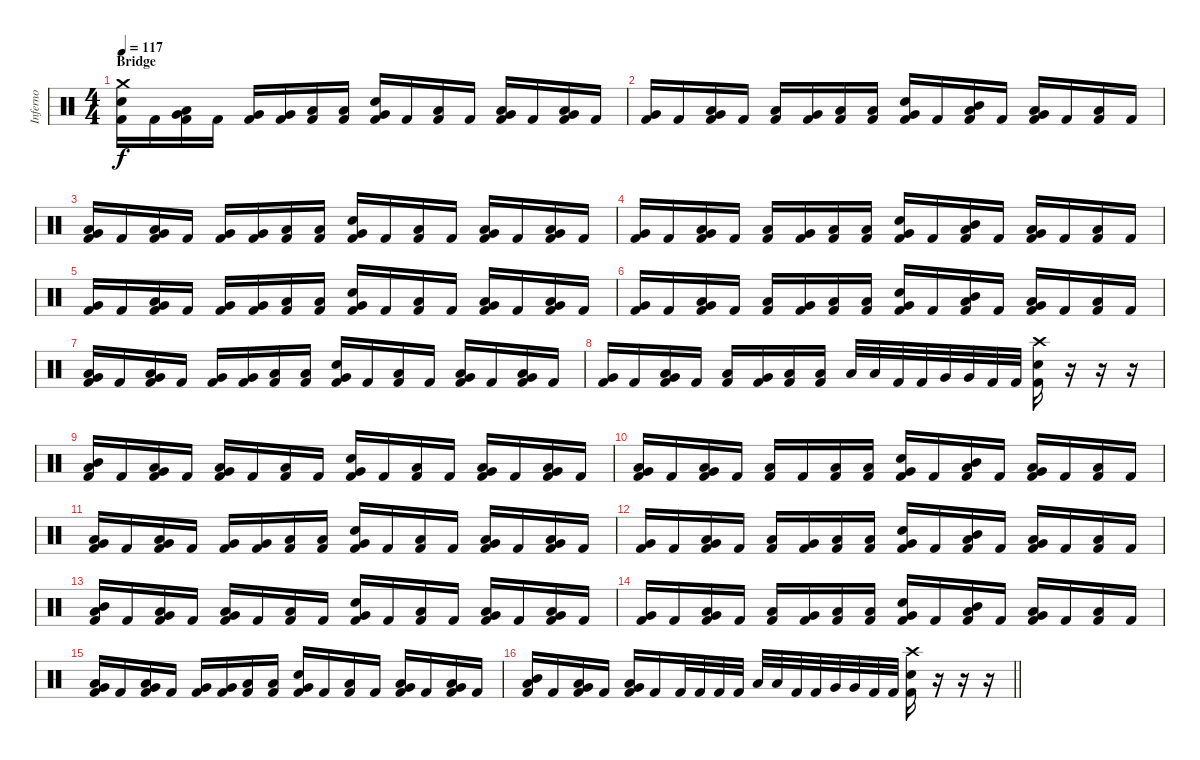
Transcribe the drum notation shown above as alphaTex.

\track ("Inferno" "Inferno") {instrument percussion}
\staff {score}
\articulation defaults
\ts (4 4)
\section ("" "Bridge ")
\tempo 117
\clef neutral
\ks c
("Crash medium (hit)" "Snare (hit) 2" "Kick (hit) 2").16{dy f} "Kick (hit) 2".16 ("Low Tom (hit)" "Very Low Tom (hit)" "Kick (hit) 2").16 "Kick (hit) 2".16 ("Very Low Tom (hit)" "Kick (hit) 2").16 ("Very Low Tom (hit)" "Kick (hit) 2").16 ("Low Floor Tom (hit)" "Kick (hit) 2").16 ("Low Floor Tom (hit)" "Kick (hit) 2").16 ("Very Low Tom (hit)" "Snare (hit) 2" "Kick (hit) 2").16 "Kick (hit) 2".16 ("Low Floor Tom (hit)" "Kick (hit) 2").16 "Kick (hit) 2".16 ("Low Tom (hit)" "Very Low Tom (hit)" "Kick (hit) 2").16 "Kick (hit) 2".16 ("Very Low Tom (hit)" "Low Floor Tom (hit)" "Kick (hit) 2").16 "Kick (hit) 2".16 |
("Very Low Tom (hit)" "Kick (hit) 2").16 "Kick (hit) 2".16 ("Very Low Tom (hit)" "Low Floor Tom (hit)" "Kick (hit) 2").16 "Kick (hit) 2".16 ("Low Tom (hit)" "Kick (hit) 2").16 ("Very Low Tom (hit)" "Kick (hit) 2").16 ("Low Floor Tom (hit)" "Kick (hit) 2").16 ("Low Floor Tom (hit)" "Kick (hit) 2").16 ("Very Low Tom (hit)" "Snare (hit) 2" "Kick (hit) 2").16 "Kick (hit) 2".16 ("Mid Tom (hit)" "Low Tom (hit)" "Kick (hit) 2").16 "Kick (hit) 2".16 ("Low Tom (hit)" "Very Low Tom (hit)" "Kick (hit) 2").16 "Kick (hit) 2".16 ("Low Floor Tom (hit)" "Kick (hit) 2").16 "Kick (hit) 2".16 |
("Very Low Tom (hit)" "Low Floor Tom (hit)" "Kick (hit) 2").16 "Kick (hit) 2".16 ("Low Tom (hit)" "Very Low Tom (hit)" "Kick (hit) 2").16 "Kick (hit) 2".16 ("Very Low Tom (hit)" "Kick (hit) 2").16 ("Very Low Tom (hit)" "Kick (hit) 2").16 ("Low Floor Tom (hit)" "Kick (hit) 2").16 ("Low Floor Tom (hit)" "Kick (hit) 2").16 ("Very Low Tom (hit)" "Snare (hit) 2" "Kick (hit) 2").16 "Kick (hit) 2".16 ("Low Floor Tom (hit)" "Kick (hit) 2").16 "Kick (hit) 2".16 ("Low Tom (hit)" "Very Low Tom (hit)" "Kick (hit) 2").16 "Kick (hit) 2".16 ("Very Low Tom (hit)" "Low Floor Tom (hit)" "Kick (hit) 2").16 "Kick (hit) 2".16 |
("Very Low Tom (hit)" "Kick (hit) 2").16 "Kick (hit) 2".16 ("Very Low Tom (hit)" "Low Floor Tom (hit)" "Kick (hit) 2").16 "Kick (hit) 2".16 ("Low Tom (hit)" "Kick (hit) 2").16 ("Very Low Tom (hit)" "Kick (hit) 2").16 ("Low Floor Tom (hit)" "Kick (hit) 2").16 ("Low Floor Tom (hit)" "Kick (hit) 2").16 ("Very Low Tom (hit)" "Snare (hit) 2" "Kick (hit) 2").16 "Kick (hit) 2".16 ("Mid Tom (hit)" "Low Tom (hit)" "Kick (hit) 2").16 "Kick (hit) 2".16 ("Low Tom (hit)" "Very Low Tom (hit)" "Kick (hit) 2").16 "Kick (hit) 2".16 ("Low Floor Tom (hit)" "Kick (hit) 2").16 "Kick (hit) 2".16 |
("Very Low Tom (hit)" "Kick (hit) 2").16 "Kick (hit) 2".16 ("Low Tom (hit)" "Very Low Tom (hit)" "Kick (hit) 2").16 "Kick (hit) 2".16 ("Very Low Tom (hit)" "Kick (hit) 2").16 ("Very Low Tom (hit)" "Kick (hit) 2").16 ("Low Floor Tom (hit)" "Kick (hit) 2").16 ("Low Floor Tom (hit)" "Kick (hit) 2").16 ("Very Low Tom (hit)" "Snare (hit) 2" "Kick (hit) 2").16 "Kick (hit) 2".16 ("Low Floor Tom (hit)" "Kick (hit) 2").16 "Kick (hit) 2".16 ("Low Tom (hit)" "Very Low Tom (hit)" "Kick (hit) 2").16 "Kick (hit) 2".16 ("Very Low Tom (hit)" "Low Floor Tom (hit)" "Kick (hit) 2").16 "Kick (hit) 2".16 |
("Very Low Tom (hit)" "Kick (hit) 2").16 "Kick (hit) 2".16 ("Very Low Tom (hit)" "Low Floor Tom (hit)" "Kick (hit) 2").16 "Kick (hit) 2".16 ("Low Tom (hit)" "Kick (hit) 2").16 ("Very Low Tom (hit)" "Kick (hit) 2").16 ("Low Floor Tom (hit)" "Kick (hit) 2").16 ("Low Floor Tom (hit)" "Kick (hit) 2").16 ("Very Low Tom (hit)" "Snare (hit) 2" "Kick (hit) 2").16 "Kick (hit) 2".16 ("Mid Tom (hit)" "Low Tom (hit)" "Kick (hit) 2").16 "Kick (hit) 2".16 ("Low Tom (hit)" "Very Low Tom (hit)" "Kick (hit) 2").16 "Kick (hit) 2".16 ("Low Floor Tom (hit)" "Kick (hit) 2").16 "Kick (hit) 2".16 |
("Very Low Tom (hit)" "Low Floor Tom (hit)" "Kick (hit) 2").16 "Kick (hit) 2".16 ("Low Tom (hit)" "Very Low Tom (hit)" "Kick (hit) 2").16 "Kick (hit) 2".16 ("Very Low Tom (hit)" "Kick (hit) 2").16 ("Very Low Tom (hit)" "Kick (hit) 2").16 ("Low Floor Tom (hit)" "Kick (hit) 2").16 ("Low Floor Tom (hit)" "Kick (hit) 2").16 ("Very Low Tom (hit)" "Snare (hit) 2" "Kick (hit) 2").16 "Kick (hit) 2".16 ("Low Floor Tom (hit)" "Kick (hit) 2").16 "Kick (hit) 2".16 ("Low Tom (hit)" "Very Low Tom (hit)" "Kick (hit) 2").16 "Kick (hit) 2".16 ("Very Low Tom (hit)" "Low Floor Tom (hit)" "Kick (hit) 2").16 "Kick (hit) 2".16 |
("Very Low Tom (hit)" "Kick (hit) 2").16 "Kick (hit) 2".16 ("Very Low Tom (hit)" "Low Floor Tom (hit)" "Kick (hit) 2").16 "Kick (hit) 2".16 ("Low Tom (hit)" "Kick (hit) 2").16 ("Very Low Tom (hit)" "Kick (hit) 2").16 ("Low Floor Tom (hit)" "Kick (hit) 2").16 ("Low Floor Tom (hit)" "Kick (hit) 2").16 "Low Tom (hit)".32 "Low Tom (hit)".32 "Kick (hit) 2".32 "Kick (hit) 2".32 "Very Low Tom (hit)".32 "Very Low Tom (hit)".32 "Kick (hit) 2".32 "Kick (hit) 2".32 ("Crash high (hit)" "Snare (hit) 2" "Kick (hit) 2").16 r.16 r.16 r.16 |
("Mid Tom (hit)" "Low Tom (hit)" "Kick (hit) 2").16 "Kick (hit) 2".16 ("Low Tom (hit)" "Very Low Tom (hit)" "Kick (hit) 2").16 "Kick (hit) 2".16 ("Very Low Tom (hit)" "Low Floor Tom (hit)" "Kick (hit) 2").16 "Kick (hit) 2".16 ("Low Floor Tom (hit)" "Kick (hit) 2").16 "Kick (hit) 2".16 ("Very Low Tom (hit)" "Snare (hit) 2" "Kick (hit) 2").16 "Kick (hit) 2".16 ("Low Floor Tom (hit)" "Kick (hit) 2").16 "Kick (hit) 2".16 ("Low Tom (hit)" "Very Low Tom (hit)" "Kick (hit) 2").16 "Kick (hit) 2".16 ("Very Low Tom (hit)" "Low Floor Tom (hit)" "Kick (hit) 2").16 "Kick (hit) 2".16 |
("Low Tom (hit)" "Very Low Tom (hit)" "Kick (hit) 2").16 "Kick (hit) 2".16 ("Very Low Tom (hit)" "Low Floor Tom (hit)" "Kick (hit) 2").16 "Kick (hit) 2".16 ("Low Floor Tom (hit)" "Kick (hit) 2").16 "Kick (hit) 2".16 ("Low Floor Tom (hit)" "Kick (hit) 2").16 ("Low Floor Tom (hit)" "Kick (hit) 2").16 ("Very Low Tom (hit)" "Snare (hit) 2" "Kick (hit) 2").16 "Kick (hit) 2".16 ("Mid Tom (hit)" "Low Tom (hit)" "Kick (hit) 2").16 "Kick (hit) 2".16 ("Low Tom (hit)" "Very Low Tom (hit)" "Kick (hit) 2").16 "Kick (hit) 2".16 ("Low Floor Tom (hit)" "Kick (hit) 2").16 "Kick (hit) 2".16 |
("Very Low Tom (hit)" "Low Floor Tom (hit)" "Kick (hit) 2").16 "Kick (hit) 2".16 ("Low Tom (hit)" "Very Low Tom (hit)" "Kick (hit) 2").16 "Kick (hit) 2".16 ("Very Low Tom (hit)" "Kick (hit) 2").16 ("Very Low Tom (hit)" "Kick (hit) 2").16 ("Low Floor Tom (hit)" "Kick (hit) 2").16 ("Low Floor Tom (hit)" "Kick (hit) 2").16 ("Very Low Tom (hit)" "Snare (hit) 2" "Kick (hit) 2").16 "Kick (hit) 2".16 ("Low Floor Tom (hit)" "Kick (hit) 2").16 "Kick (hit) 2".16 ("Low Tom (hit)" "Very Low Tom (hit)" "Kick (hit) 2").16 "Kick (hit) 2".16 ("Very Low Tom (hit)" "Low Floor Tom (hit)" "Kick (hit) 2").16 "Kick (hit) 2".16 |
("Very Low Tom (hit)" "Kick (hit) 2").16 "Kick (hit) 2".16 ("Very Low Tom (hit)" "Low Floor Tom (hit)" "Kick (hit) 2").16 "Kick (hit) 2".16 ("Low Tom (hit)" "Kick (hit) 2").16 ("Very Low Tom (hit)" "Kick (hit) 2").16 ("Low Floor Tom (hit)" "Kick (hit) 2").16 ("Low Floor Tom (hit)" "Kick (hit) 2").16 ("Very Low Tom (hit)" "Snare (hit) 2" "Kick (hit) 2").16 "Kick (hit) 2".16 ("Mid Tom (hit)" "Low Tom (hit)" "Kick (hit) 2").16 "Kick (hit) 2".16 ("Low Tom (hit)" "Very Low Tom (hit)" "Kick (hit) 2").16 "Kick (hit) 2".16 ("Low Floor Tom (hit)" "Kick (hit) 2").16 "Kick (hit) 2".16 |
("Mid Tom (hit)" "Low Tom (hit)" "Kick (hit) 2").16 "Kick (hit) 2".16 ("Low Tom (hit)" "Very Low Tom (hit)" "Kick (hit) 2").16 "Kick (hit) 2".16 ("Very Low Tom (hit)" "Low Floor Tom (hit)" "Kick (hit) 2").16 "Kick (hit) 2".16 ("Low Floor Tom (hit)" "Kick (hit) 2").16 "Kick (hit) 2".16 ("Very Low Tom (hit)" "Snare (hit) 2" "Kick (hit) 2").16 "Kick (hit) 2".16 ("Low Floor Tom (hit)" "Kick (hit) 2").16 "Kick (hit) 2".16 ("Low Tom (hit)" "Very Low Tom (hit)" "Kick (hit) 2").16 "Kick (hit) 2".16 ("Very Low Tom (hit)" "Low Floor Tom (hit)" "Kick (hit) 2").16 "Kick (hit) 2".16 |
("Very Low Tom (hit)" "Kick (hit) 2").16 "Kick (hit) 2".16 ("Very Low Tom (hit)" "Low Floor Tom (hit)" "Kick (hit) 2").16 "Kick (hit) 2".16 ("Low Tom (hit)" "Kick (hit) 2").16 ("Very Low Tom (hit)" "Kick (hit) 2").16 ("Low Floor Tom (hit)" "Kick (hit) 2").16 ("Low Floor Tom (hit)" "Kick (hit) 2").16 ("Very Low Tom (hit)" "Snare (hit) 2" "Kick (hit) 2").16 "Kick (hit) 2".16 ("Mid Tom (hit)" "Low Tom (hit)" "Kick (hit) 2").16 "Kick (hit) 2".16 ("Low Tom (hit)" "Very Low Tom (hit)" "Kick (hit) 2").16 "Kick (hit) 2".16 ("Low Floor Tom (hit)" "Kick (hit) 2").16 "Kick (hit) 2".16 |
("Very Low Tom (hit)" "Low Floor Tom (hit)" "Kick (hit) 2").16 "Kick (hit) 2".16 ("Low Tom (hit)" "Very Low Tom (hit)" "Kick (hit) 2").16 "Kick (hit) 2".16 ("Very Low Tom (hit)" "Kick (hit) 2").16 ("Very Low Tom (hit)" "Kick (hit) 2").16 ("Low Floor Tom (hit)" "Kick (hit) 2").16 ("Low Floor Tom (hit)" "Kick (hit) 2").16 ("Very Low Tom (hit)" "Snare (hit) 2" "Kick (hit) 2").16 "Kick (hit) 2".16 ("Low Floor Tom (hit)" "Kick (hit) 2").16 "Kick (hit) 2".16 ("Low Tom (hit)" "Very Low Tom (hit)" "Kick (hit) 2").16 "Kick (hit) 2".16 ("Very Low Tom (hit)" "Low Floor Tom (hit)" "Kick (hit) 2").16 "Kick (hit) 2".16 |
\barLineRight lightlight
("Mid Tom (hit)" "Low Tom (hit)" "Kick (hit) 2").16 "Kick (hit) 2".16 ("Low Tom (hit)" "Very Low Tom (hit)" "Kick (hit) 2").16 "Kick (hit) 2".16 ("Very Low Tom (hit)" "Low Floor Tom (hit)" "Kick (hit) 2").16 "Kick (hit) 2".16 "Kick (hit) 2".32 "Kick (hit) 2".32 "Kick (hit) 2".32 "Kick (hit) 2".32 "Low Tom (hit)".32 "Low Tom (hit)".32 "Kick (hit) 2".32 "Kick (hit) 2".32 "Very Low Tom (hit)".32 "Very Low Tom (hit)".32 "Kick (hit) 2".32 "Kick (hit) 2".32 ("Crash high (hit)" "Snare (hit) 2" "Kick (hit) 2").16 r.16 r.16 r.16
